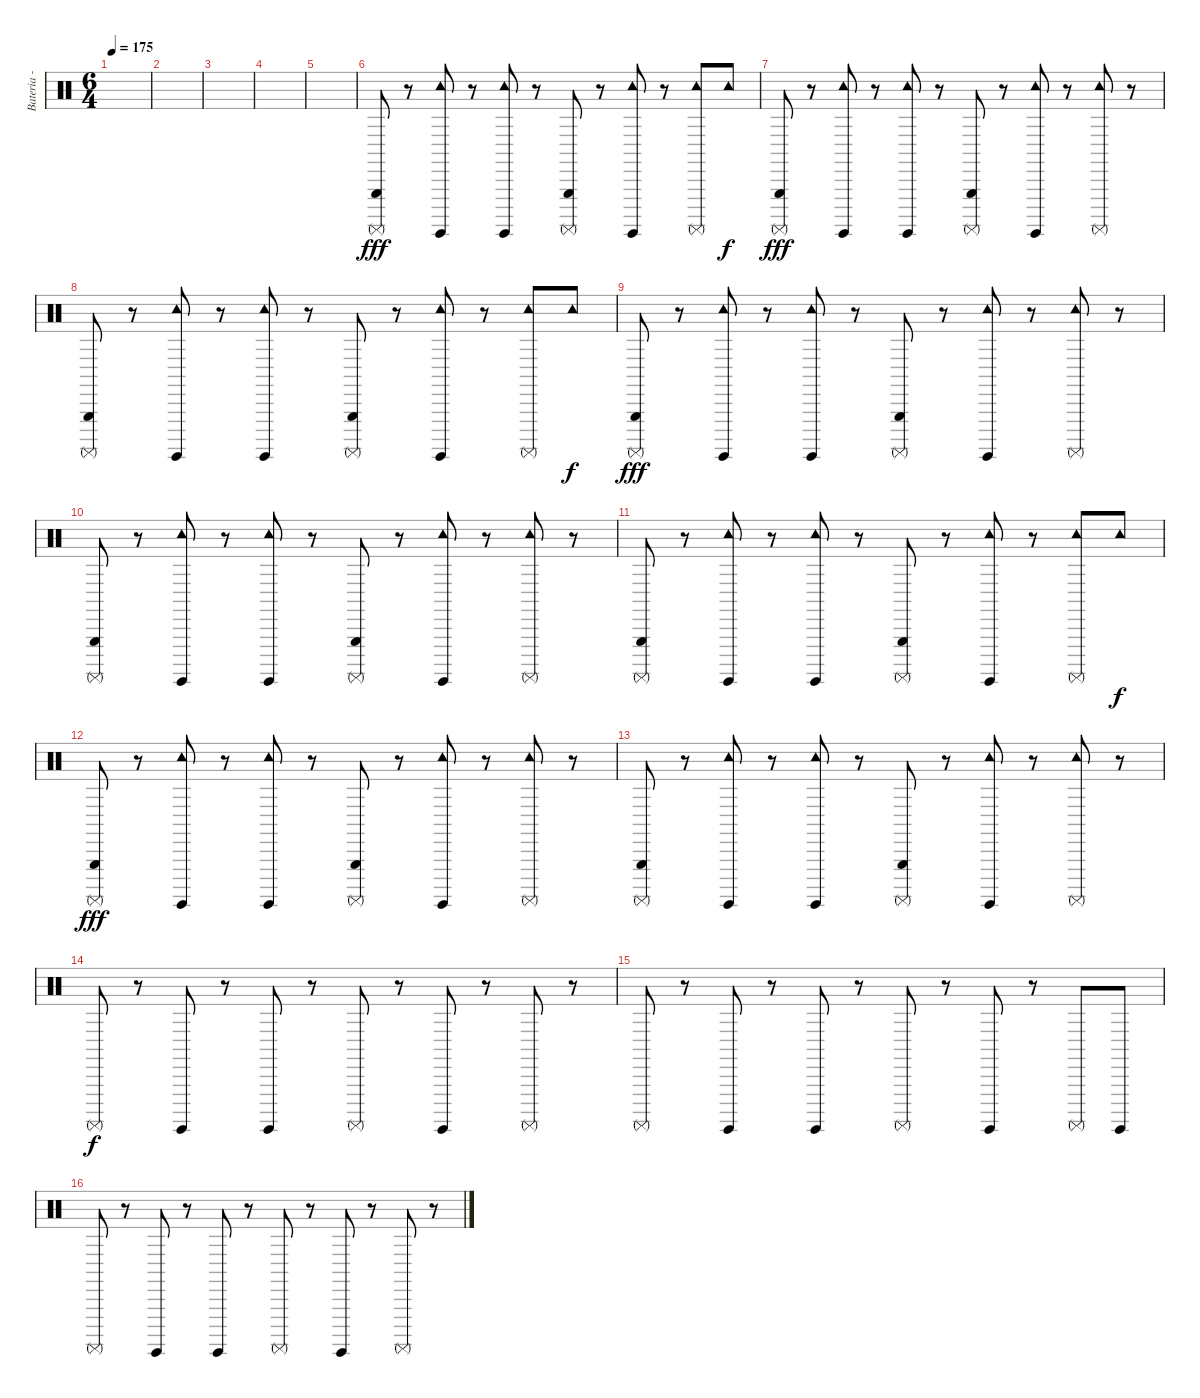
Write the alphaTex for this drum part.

\track ("Bateria - Drums" "Bateria - ") {instrument percussion}
\staff {score}
\articulation defaults
\ts (6 4)
\tempo 175
\clef neutral
\ks c
|
|
|
|
|
\section ("" "")
("Surdo (mute)" "Triangle (hit)").8{dy fff volume 8} r.8 ("Surdo (hit)" "Tambourine (hit)").8 r.8 ("Surdo (hit)" "Tambourine (hit)").8 r.8 ("Surdo (mute)" "Triangle (hit)").8 r.8 ("Surdo (hit)" "Tambourine (hit)").8 r.8 ("Surdo (mute)" "Tambourine (hit)").8 "Tambourine (hit)".8{dy f} |
("Surdo (mute)" "Triangle (hit)").8{dy fff} r.8 ("Surdo (hit)" "Tambourine (hit)").8 r.8 ("Surdo (hit)" "Tambourine (hit)").8 r.8 ("Surdo (mute)" "Triangle (hit)").8 r.8 ("Surdo (hit)" "Tambourine (hit)").8 r.8 ("Surdo (mute)" "Tambourine (hit)").8 r.8 |
("Surdo (mute)" "Triangle (hit)").8 r.8 ("Surdo (hit)" "Tambourine (hit)").8 r.8 ("Surdo (hit)" "Tambourine (hit)").8 r.8 ("Surdo (mute)" "Triangle (hit)").8 r.8 ("Surdo (hit)" "Tambourine (hit)").8 r.8 ("Surdo (mute)" "Tambourine (hit)").8 "Tambourine (hit)".8{dy f} |
("Surdo (mute)" "Triangle (hit)").8{dy fff} r.8 ("Surdo (hit)" "Tambourine (hit)").8 r.8 ("Surdo (hit)" "Tambourine (hit)").8 r.8 ("Surdo (mute)" "Triangle (hit)").8 r.8 ("Surdo (hit)" "Tambourine (hit)").8 r.8 ("Surdo (mute)" "Tambourine (hit)").8 r.8 |
\section ("" "")
("Surdo (mute)" "Triangle (hit)").8{volume 8} r.8 ("Surdo (hit)" "Tambourine (hit)").8 r.8 ("Surdo (hit)" "Tambourine (hit)").8 r.8 ("Surdo (mute)" "Triangle (hit)").8 r.8 ("Surdo (hit)" "Tambourine (hit)").8 r.8 ("Surdo (mute)" "Tambourine (hit)").8 r.8 |
("Surdo (mute)" "Triangle (hit)").8 r.8 ("Surdo (hit)" "Tambourine (hit)").8 r.8 ("Surdo (hit)" "Tambourine (hit)").8 r.8 ("Surdo (mute)" "Triangle (hit)").8 r.8 ("Surdo (hit)" "Tambourine (hit)").8 r.8 ("Surdo (mute)" "Tambourine (hit)").8 "Tambourine (hit)".8{dy f} |
("Surdo (mute)" "Triangle (hit)").8{dy fff} r.8 ("Surdo (hit)" "Tambourine (hit)").8 r.8 ("Surdo (hit)" "Tambourine (hit)").8 r.8 ("Surdo (mute)" "Triangle (hit)").8 r.8 ("Surdo (hit)" "Tambourine (hit)").8 r.8 ("Surdo (mute)" "Tambourine (hit)").8 r.8 |
("Surdo (mute)" "Triangle (hit)").8 r.8 ("Surdo (hit)" "Tambourine (hit)").8 r.8 ("Surdo (hit)" "Tambourine (hit)").8 r.8 ("Surdo (mute)" "Triangle (hit)").8 r.8 ("Surdo (hit)" "Tambourine (hit)").8 r.8 ("Surdo (mute)" "Tambourine (hit)").8 r.8 |
\section ("" "")
"Surdo (mute)".8{dy f volume 13} r.8 "Surdo (hit)".8 r.8 "Surdo (hit)".8 r.8 "Surdo (mute)".8 r.8 "Surdo (hit)".8 r.8 "Surdo (mute)".8 r.8 |
"Surdo (mute)".8 r.8 "Surdo (hit)".8 r.8 "Surdo (hit)".8 r.8 "Surdo (mute)".8 r.8 "Surdo (hit)".8 r.8 "Surdo (mute)".8 "Surdo (hit)".8 |
"Surdo (mute)".8{volume 13} r.8 "Surdo (hit)".8 r.8 "Surdo (hit)".8 r.8 "Surdo (mute)".8 r.8 "Surdo (hit)".8 r.8 "Surdo (mute)".8 r.8
